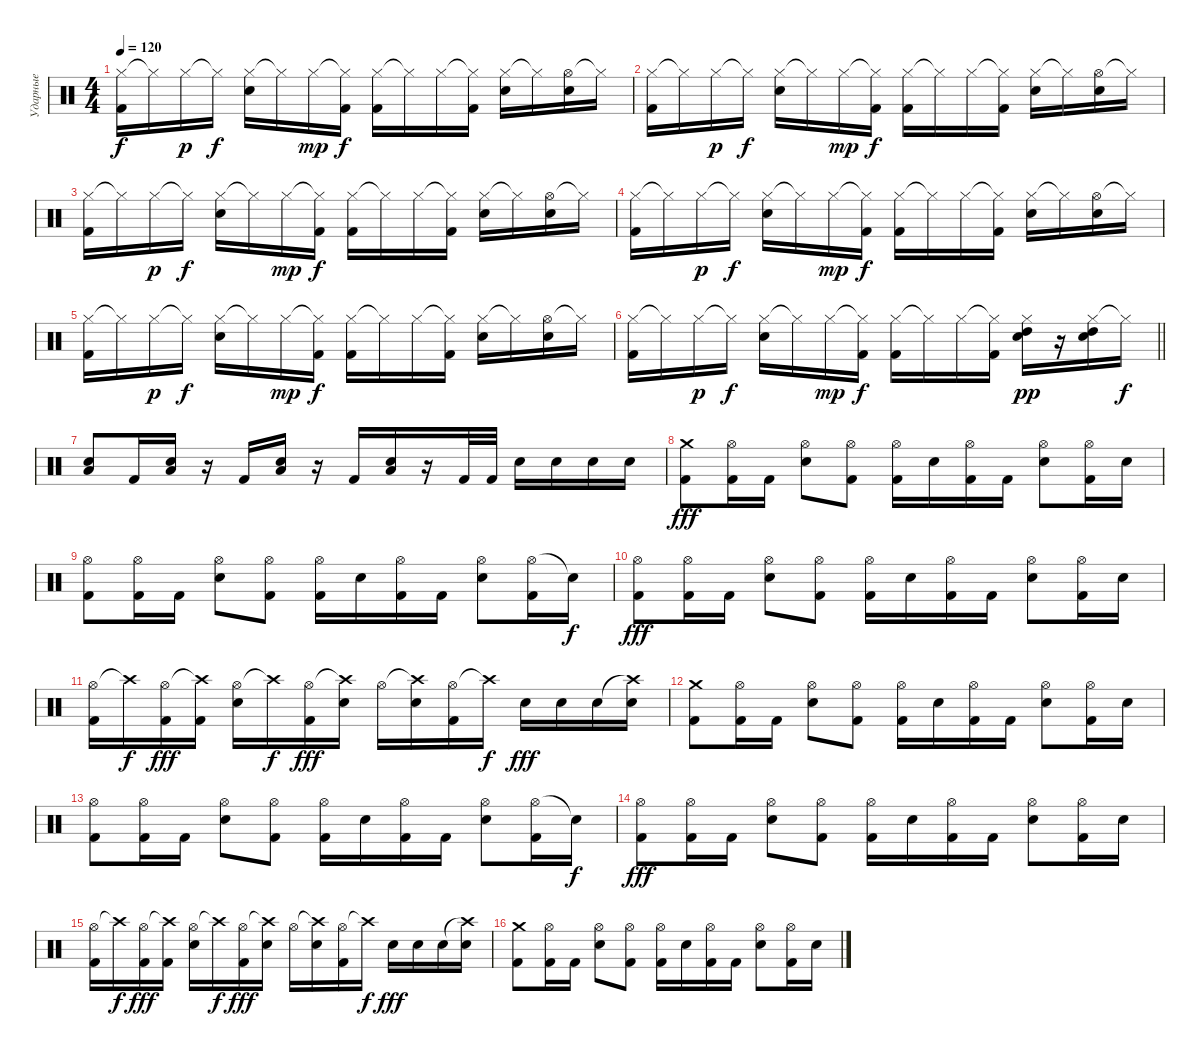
\track ("Ударные" "Ударные") {instrument percussion}
\staff {score}
\articulation defaults
\ts (4 4)
\tempo 120
\clef neutral
\ks c
("Hi-Hat (closed)" "Kick (hit) 2").16{dy f} "Hi-Hat (closed)"{t}.16 "Hi-Hat (closed)".16{dy p} "Hi-Hat (closed)"{t}.16{dy f} ("Hi-Hat (closed)" "Electric Snare (hit)").16 "Hi-Hat (closed)"{t}.16 "Hi-Hat (closed)".16{dy mp} ("Hi-Hat (closed)"{t} "Kick (hit) 2").16{dy f} ("Hi-Hat (closed)" "Kick (hit) 2").16 "Hi-Hat (closed)"{t}.16 "Hi-Hat (closed)".16 ("Hi-Hat (closed)"{t} "Kick (hit) 2").16 ("Hi-Hat (closed)" "Electric Snare (hit)").16 "Hi-Hat (closed)"{t}.16 ("Hi-Hat (open)" "Electric Snare (hit)").16 "Hi-Hat (closed)"{t}.16 |
("Hi-Hat (closed)" "Kick (hit) 2").16 "Hi-Hat (closed)"{t}.16 "Hi-Hat (closed)".16{dy p} "Hi-Hat (closed)"{t}.16{dy f} ("Hi-Hat (closed)" "Electric Snare (hit)").16 "Hi-Hat (closed)"{t}.16 "Hi-Hat (closed)".16{dy mp} ("Hi-Hat (closed)"{t} "Kick (hit) 2").16{dy f} ("Hi-Hat (closed)" "Kick (hit) 2").16 "Hi-Hat (closed)"{t}.16 "Hi-Hat (closed)".16 ("Hi-Hat (closed)"{t} "Kick (hit) 2").16 ("Hi-Hat (closed)" "Electric Snare (hit)").16 "Hi-Hat (closed)"{t}.16 ("Hi-Hat (open)" "Electric Snare (hit)").16 "Hi-Hat (closed)"{t}.16 |
("Hi-Hat (closed)" "Kick (hit) 2").16 "Hi-Hat (closed)"{t}.16 "Hi-Hat (closed)".16{dy p} "Hi-Hat (closed)"{t}.16{dy f} ("Hi-Hat (closed)" "Electric Snare (hit)").16 "Hi-Hat (closed)"{t}.16 "Hi-Hat (closed)".16{dy mp} ("Hi-Hat (closed)"{t} "Kick (hit) 2").16{dy f} ("Hi-Hat (closed)" "Kick (hit) 2").16 "Hi-Hat (closed)"{t}.16 "Hi-Hat (closed)".16 ("Hi-Hat (closed)"{t} "Kick (hit) 2").16 ("Hi-Hat (closed)" "Electric Snare (hit)").16 "Hi-Hat (closed)"{t}.16 ("Hi-Hat (open)" "Electric Snare (hit)").16 "Hi-Hat (closed)"{t}.16 |
("Hi-Hat (closed)" "Kick (hit) 2").16 "Hi-Hat (closed)"{t}.16 "Hi-Hat (closed)".16{dy p} "Hi-Hat (closed)"{t}.16{dy f} ("Hi-Hat (closed)" "Electric Snare (hit)").16 "Hi-Hat (closed)"{t}.16 "Hi-Hat (closed)".16{dy mp} ("Hi-Hat (closed)"{t} "Kick (hit) 2").16{dy f} ("Hi-Hat (closed)" "Kick (hit) 2").16 "Hi-Hat (closed)"{t}.16 "Hi-Hat (closed)".16 ("Hi-Hat (closed)"{t} "Kick (hit) 2").16 ("Hi-Hat (closed)" "Electric Snare (hit)").16 "Hi-Hat (closed)"{t}.16 ("Hi-Hat (open)" "Electric Snare (hit)").16 "Hi-Hat (closed)"{t}.16 |
("Hi-Hat (closed)" "Kick (hit) 2").16 "Hi-Hat (closed)"{t}.16 "Hi-Hat (closed)".16{dy p} "Hi-Hat (closed)"{t}.16{dy f} ("Hi-Hat (closed)" "Electric Snare (hit)").16 "Hi-Hat (closed)"{t}.16 "Hi-Hat (closed)".16{dy mp} ("Hi-Hat (closed)"{t} "Kick (hit) 2").16{dy f} ("Hi-Hat (closed)" "Kick (hit) 2").16 "Hi-Hat (closed)"{t}.16 "Hi-Hat (closed)".16 ("Hi-Hat (closed)"{t} "Kick (hit) 2").16 ("Hi-Hat (closed)" "Electric Snare (hit)").16 "Hi-Hat (closed)"{t}.16 ("Hi-Hat (open)" "Electric Snare (hit)").16 "Hi-Hat (closed)"{t}.16 |
\barLineRight lightlight
("Hi-Hat (closed)" "Kick (hit) 2").16 "Hi-Hat (closed)"{t}.16 "Hi-Hat (closed)".16{dy p} "Hi-Hat (closed)"{t}.16{dy f} ("Hi-Hat (closed)" "Electric Snare (hit)").16 "Hi-Hat (closed)"{t}.16 "Hi-Hat (closed)".16{dy mp} ("Hi-Hat (closed)"{t} "Kick (hit) 2").16{dy f} ("Hi-Hat (closed)" "Kick (hit) 2").16 "Hi-Hat (closed)"{t}.16 "Hi-Hat (closed)".16 ("Hi-Hat (closed)"{t} "Kick (hit) 2").16 ("Hi-Hat (closed)" "High Tom (hit)" "Electric Snare (hit)").16{dy pp} r.16 ("Hi-Hat (closed)" "High Tom (hit)" "Electric Snare (hit)").16 "Hi-Hat (closed)"{t}.16{dy f} |
("Low Tom (hit)" "Electric Snare (hit)").8 "Kick (hit) 2".16 ("Low Tom (hit)" "Electric Snare (hit)").16 r.16 "Kick (hit) 2".16 ("Low Tom (hit)" "Electric Snare (hit)").16 r.16 "Kick (hit) 2".16 ("Low Tom (hit)" "Electric Snare (hit)").16 r.16 "Kick (hit) 2".32 "Kick (hit) 2".32 "Electric Snare (hit)".16 "Electric Snare (hit)".16 "Electric Snare (hit)".16 "Electric Snare (hit)".16 |
("Crash medium (hit)" "Kick (hit) 2").8{dy fff} ("Hi-Hat (open)" "Kick (hit) 2").16 "Kick (hit) 2".16 ("Hi-Hat (open)" "Electric Snare (hit)").8 ("Hi-Hat (open)" "Kick (hit) 2").8 ("Hi-Hat (open)" "Kick (hit) 2").16 "Electric Snare (hit)".16 ("Hi-Hat (open)" "Kick (hit) 2").16 "Kick (hit) 2".16 ("Hi-Hat (open)" "Electric Snare (hit)").8 ("Hi-Hat (open)" "Kick (hit) 2").16 "Electric Snare (hit)".16 |
("Hi-Hat (open)" "Kick (hit) 2").8 ("Hi-Hat (open)" "Kick (hit) 2").16 "Kick (hit) 2".16 ("Hi-Hat (open)" "Electric Snare (hit)").8 ("Hi-Hat (open)" "Kick (hit) 2").8 ("Hi-Hat (open)" "Kick (hit) 2").16 "Electric Snare (hit)".16 ("Hi-Hat (open)" "Kick (hit) 2").16 "Kick (hit) 2".16 ("Hi-Hat (open)" "Electric Snare (hit)").8 ("Hi-Hat (open)" "Kick (hit) 2").16 "Snare (hit)"{t}.16{dy f} |
("Hi-Hat (open)" "Kick (hit) 2").8{dy fff} ("Hi-Hat (open)" "Kick (hit) 2").16 "Kick (hit) 2".16 ("Hi-Hat (open)" "Electric Snare (hit)").8 ("Hi-Hat (open)" "Kick (hit) 2").8 ("Hi-Hat (open)" "Kick (hit) 2").16 "Electric Snare (hit)".16 ("Hi-Hat (open)" "Kick (hit) 2").16 "Kick (hit) 2".16 ("Hi-Hat (open)" "Electric Snare (hit)").8 ("Hi-Hat (open)" "Kick (hit) 2").16 "Electric Snare (hit)".16 |
("Hi-Hat (open)" "Kick (hit) 2").16 "Crash high (hit)"{t}.16{dy f} ("Hi-Hat (open)" "Kick (hit) 2").16{dy fff} ("Crash high (hit)"{t} "Kick (hit) 2").16 ("Hi-Hat (open)" "Electric Snare (hit)").16 "Crash high (hit)"{t}.16{dy f} ("Hi-Hat (open)" "Kick (hit) 2").16{dy fff} ("Crash high (hit)"{t} "Electric Snare (hit)").16 "Hi-Hat (open)".16 ("Crash high (hit)"{t} "Electric Snare (hit)").16 ("Hi-Hat (open)" "Kick (hit) 2").16 "Crash high (hit)"{t}.16{dy f} "Electric Snare (hit)".16{dy fff} "Electric Snare (hit)".16 "Electric Snare (hit)".16 ("Crash high (hit)"{t} "Electric Snare (hit)").16 |
("Crash medium (hit)" "Kick (hit) 2").8 ("Hi-Hat (open)" "Kick (hit) 2").16 "Kick (hit) 2".16 ("Hi-Hat (open)" "Electric Snare (hit)").8 ("Hi-Hat (open)" "Kick (hit) 2").8 ("Hi-Hat (open)" "Kick (hit) 2").16 "Electric Snare (hit)".16 ("Hi-Hat (open)" "Kick (hit) 2").16 "Kick (hit) 2".16 ("Hi-Hat (open)" "Electric Snare (hit)").8 ("Hi-Hat (open)" "Kick (hit) 2").16 "Electric Snare (hit)".16 |
("Hi-Hat (open)" "Kick (hit) 2").8 ("Hi-Hat (open)" "Kick (hit) 2").16 "Kick (hit) 2".16 ("Hi-Hat (open)" "Electric Snare (hit)").8 ("Hi-Hat (open)" "Kick (hit) 2").8 ("Hi-Hat (open)" "Kick (hit) 2").16 "Electric Snare (hit)".16 ("Hi-Hat (open)" "Kick (hit) 2").16 "Kick (hit) 2".16 ("Hi-Hat (open)" "Electric Snare (hit)").8 ("Hi-Hat (open)" "Kick (hit) 2").16 "Snare (hit)"{t}.16{dy f} |
("Hi-Hat (open)" "Kick (hit) 2").8{dy fff} ("Hi-Hat (open)" "Kick (hit) 2").16 "Kick (hit) 2".16 ("Hi-Hat (open)" "Electric Snare (hit)").8 ("Hi-Hat (open)" "Kick (hit) 2").8 ("Hi-Hat (open)" "Kick (hit) 2").16 "Electric Snare (hit)".16 ("Hi-Hat (open)" "Kick (hit) 2").16 "Kick (hit) 2".16 ("Hi-Hat (open)" "Electric Snare (hit)").8 ("Hi-Hat (open)" "Kick (hit) 2").16 "Electric Snare (hit)".16 |
("Hi-Hat (open)" "Kick (hit) 2").16 "Crash high (hit)"{t}.16{dy f} ("Hi-Hat (open)" "Kick (hit) 2").16{dy fff} ("Crash high (hit)"{t} "Kick (hit) 2").16 ("Hi-Hat (open)" "Electric Snare (hit)").16 "Crash high (hit)"{t}.16{dy f} ("Hi-Hat (open)" "Kick (hit) 2").16{dy fff} ("Crash high (hit)"{t} "Electric Snare (hit)").16 "Hi-Hat (open)".16 ("Crash high (hit)"{t} "Electric Snare (hit)").16 ("Hi-Hat (open)" "Kick (hit) 2").16 "Crash high (hit)"{t}.16{dy f} "Electric Snare (hit)".16{dy fff} "Electric Snare (hit)".16 "Electric Snare (hit)".16 ("Crash high (hit)"{t} "Electric Snare (hit)").16 |
("Crash medium (hit)" "Kick (hit) 2").8 ("Hi-Hat (open)" "Kick (hit) 2").16 "Kick (hit) 2".16 ("Hi-Hat (open)" "Electric Snare (hit)").8 ("Hi-Hat (open)" "Kick (hit) 2").8 ("Hi-Hat (open)" "Kick (hit) 2").16 "Electric Snare (hit)".16 ("Hi-Hat (open)" "Kick (hit) 2").16 "Kick (hit) 2".16 ("Hi-Hat (open)" "Electric Snare (hit)").8 ("Hi-Hat (open)" "Kick (hit) 2").16 "Electric Snare (hit)".16
